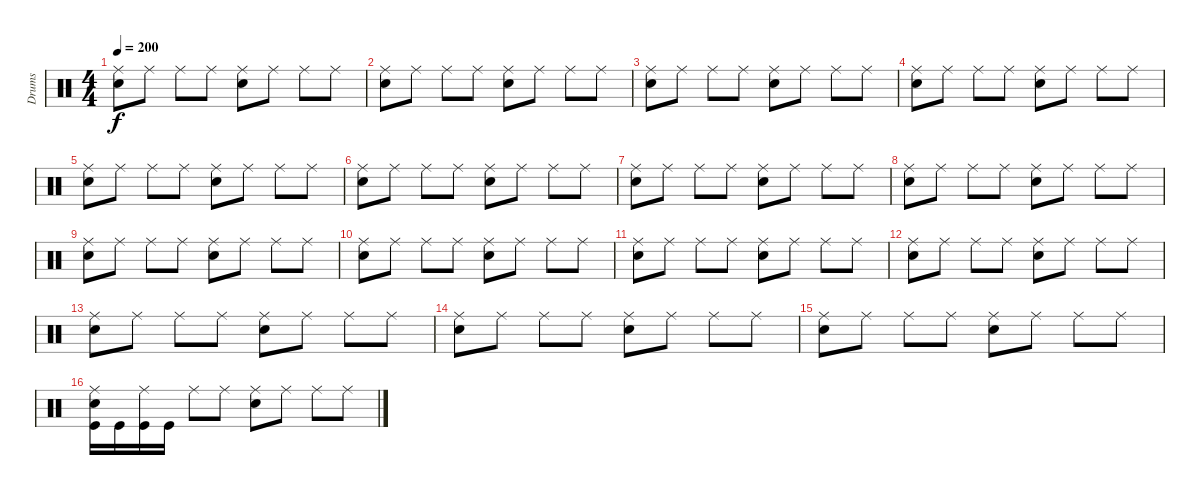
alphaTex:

\track ("Drums" "Drums") {instrument percussion}
\staff {score}
\articulation defaults
\ts (4 4)
\tempo 200
\clef neutral
\ks c
("Electric Snare (hit)" "Ride (middle)").8{dy f} "Ride (middle)".8 "Ride (middle)".8 "Ride (middle)".8 ("Electric Snare (hit)" "Ride (middle)").8 "Ride (middle)".8 "Ride (middle)".8 "Ride (middle)".8 |
("Electric Snare (hit)" "Ride (middle)").8 "Ride (middle)".8 "Ride (middle)".8 "Ride (middle)".8 ("Electric Snare (hit)" "Ride (middle)").8 "Ride (middle)".8 "Ride (middle)".8 "Ride (middle)".8 |
("Electric Snare (hit)" "Ride (middle)").8 "Ride (middle)".8 "Ride (middle)".8 "Ride (middle)".8 ("Electric Snare (hit)" "Ride (middle)").8 "Ride (middle)".8 "Ride (middle)".8 "Ride (middle)".8 |
("Electric Snare (hit)" "Ride (middle)").8 "Ride (middle)".8 "Ride (middle)".8 "Ride (middle)".8 ("Electric Snare (hit)" "Ride (middle)").8 "Ride (middle)".8 "Ride (middle)".8 "Ride (middle)".8 |
("Electric Snare (hit)" "Ride (middle)").8 "Ride (middle)".8 "Ride (middle)".8 "Ride (middle)".8 ("Electric Snare (hit)" "Ride (middle)").8 "Ride (middle)".8 "Ride (middle)".8 "Ride (middle)".8 |
("Electric Snare (hit)" "Ride (middle)").8 "Ride (middle)".8 "Ride (middle)".8 "Ride (middle)".8 ("Electric Snare (hit)" "Ride (middle)").8 "Ride (middle)".8 "Ride (middle)".8 "Ride (middle)".8 |
("Electric Snare (hit)" "Ride (middle)").8 "Ride (middle)".8 "Ride (middle)".8 "Ride (middle)".8 ("Electric Snare (hit)" "Ride (middle)").8 "Ride (middle)".8 "Ride (middle)".8 "Ride (middle)".8 |
("Electric Snare (hit)" "Ride (middle)").8 "Ride (middle)".8 "Ride (middle)".8 "Ride (middle)".8 ("Electric Snare (hit)" "Ride (middle)").8 "Ride (middle)".8 "Ride (middle)".8 "Ride (middle)".8 |
("Electric Snare (hit)" "Ride (middle)").8 "Ride (middle)".8 "Ride (middle)".8 "Ride (middle)".8 ("Electric Snare (hit)" "Ride (middle)").8 "Ride (middle)".8 "Ride (middle)".8 "Ride (middle)".8 |
("Electric Snare (hit)" "Ride (middle)").8 "Ride (middle)".8 "Ride (middle)".8 "Ride (middle)".8 ("Electric Snare (hit)" "Ride (middle)").8 "Ride (middle)".8 "Ride (middle)".8 "Ride (middle)".8 |
("Electric Snare (hit)" "Ride (middle)").8 "Ride (middle)".8 "Ride (middle)".8 "Ride (middle)".8 ("Electric Snare (hit)" "Ride (middle)").8 "Ride (middle)".8 "Ride (middle)".8 "Ride (middle)".8 |
("Electric Snare (hit)" "Ride (middle)").8 "Ride (middle)".8 "Ride (middle)".8 "Ride (middle)".8 ("Electric Snare (hit)" "Ride (middle)").8 "Ride (middle)".8 "Ride (middle)".8 "Ride (middle)".8 |
("Electric Snare (hit)" "Ride (middle)").8 "Ride (middle)".8 "Ride (middle)".8 "Ride (middle)".8 ("Electric Snare (hit)" "Ride (middle)").8 "Ride (middle)".8 "Ride (middle)".8 "Ride (middle)".8 |
("Electric Snare (hit)" "Ride (middle)").8 "Ride (middle)".8 "Ride (middle)".8 "Ride (middle)".8 ("Electric Snare (hit)" "Ride (middle)").8 "Ride (middle)".8 "Ride (middle)".8 "Ride (middle)".8 |
("Electric Snare (hit)" "Ride (middle)").8 "Ride (middle)".8 "Ride (middle)".8 "Ride (middle)".8 ("Electric Snare (hit)" "Ride (middle)").8 "Ride (middle)".8 "Ride (middle)".8 "Ride (middle)".8 |
("Electric Snare (hit)" "Ride (middle)" "Kick (hit)").16 "Kick (hit)".16 ("Ride (middle)" "Kick (hit)").16 "Kick (hit)".16 "Ride (middle)".8 "Ride (middle)".8 ("Electric Snare (hit)" "Ride (middle)").8 "Ride (middle)".8 "Ride (middle)".8 "Ride (middle)".8
